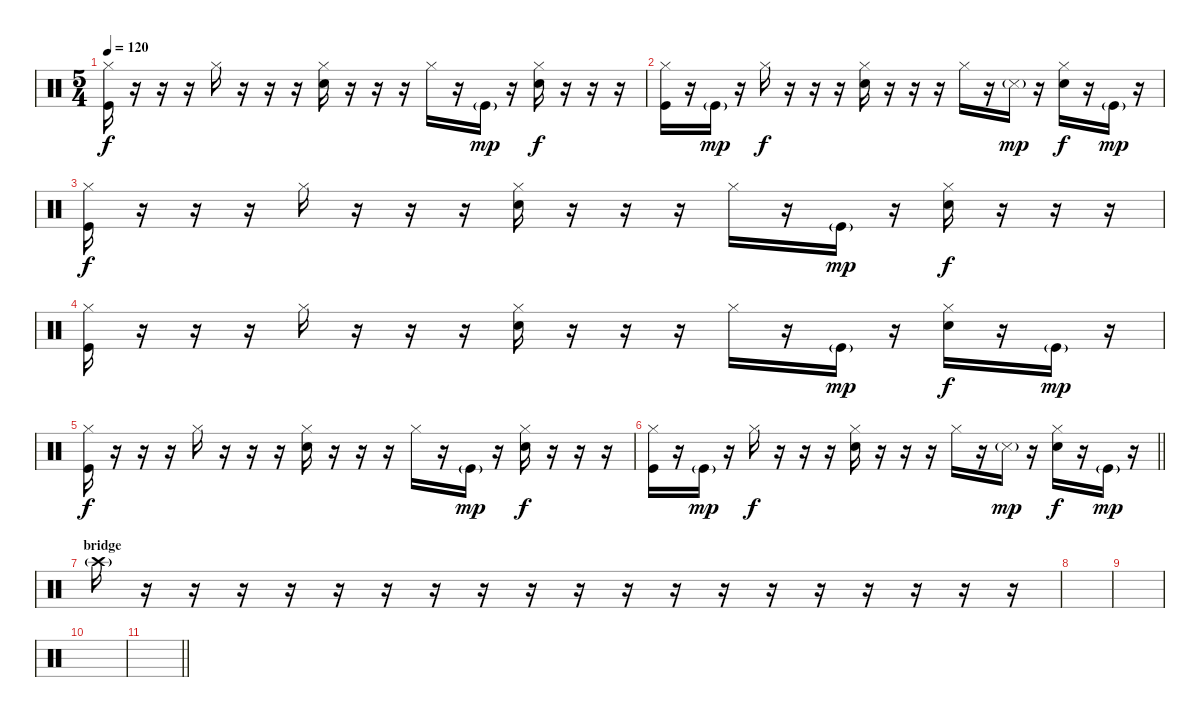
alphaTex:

\track "" {instrument percussion}
\staff {score}
\articulation defaults
\ts (5 4)
\tempo 120
\clef neutral
\ks c
("Kick (hit)" "Hi-Hat (closed)").16{dy f} r.16 r.16 r.16 "Hi-Hat (closed)".16 r.16 r.16 r.16 ("Snare (hit) 2" "Hi-Hat (closed)").16 r.16 r.16 r.16 "Hi-Hat (closed)".16 r.16 "Kick (hit)"{g}.16{dy mp} r.16 ("Snare (hit) 2" "Hi-Hat (closed)").16{dy f} r.16 r.16 r.16 |
("Kick (hit)" "Hi-Hat (closed)").16 r.16 "Kick (hit)"{g}.16{dy mp} r.16 "Hi-Hat (closed)".16{dy f} r.16 r.16 r.16 ("Snare (hit) 2" "Hi-Hat (closed)").16 r.16 r.16 r.16 "Hi-Hat (closed)".16 r.16 "Snare (side stick) 3"{g}.16{dy mp} r.16 ("Snare (hit) 2" "Hi-Hat (closed)").16{dy f} r.16 "Kick (hit)"{g}.16{dy mp} r.16 |
("Kick (hit)" "Hi-Hat (closed)").16{dy f} r.16 r.16 r.16 "Hi-Hat (closed)".16 r.16 r.16 r.16 ("Snare (hit) 2" "Hi-Hat (closed)").16 r.16 r.16 r.16 "Hi-Hat (closed)".16 r.16 "Kick (hit)"{g}.16{dy mp} r.16 ("Snare (hit) 2" "Hi-Hat (closed)").16{dy f} r.16 r.16 r.16 |
("Kick (hit)" "Hi-Hat (closed)").16 r.16 r.16 r.16 "Hi-Hat (closed)".16 r.16 r.16 r.16 ("Snare (hit) 2" "Hi-Hat (closed)").16 r.16 r.16 r.16 "Hi-Hat (closed)".16 r.16 "Kick (hit)"{g}.16{dy mp} r.16 ("Snare (hit) 2" "Hi-Hat (closed)").16{dy f} r.16 "Kick (hit)"{g}.16{dy mp} r.16 |
("Kick (hit)" "Hi-Hat (closed)").16{dy f} r.16 r.16 r.16 "Hi-Hat (closed)".16 r.16 r.16 r.16 ("Snare (hit) 2" "Hi-Hat (closed)").16 r.16 r.16 r.16 "Hi-Hat (closed)".16 r.16 "Kick (hit)"{g}.16{dy mp} r.16 ("Snare (hit) 2" "Hi-Hat (closed)").16{dy f} r.16 r.16 r.16 |
\barLineRight lightlight
("Kick (hit)" "Hi-Hat (closed)").16 r.16 "Kick (hit)"{g}.16{dy mp} r.16 "Hi-Hat (closed)".16{dy f} r.16 r.16 r.16 ("Snare (hit) 2" "Hi-Hat (closed)").16 r.16 r.16 r.16 "Hi-Hat (closed)".16 r.16 "Snare (side stick) 3"{g}.16{dy mp} r.16 ("Snare (hit) 2" "Hi-Hat (closed)").16{dy f} r.16 "Kick (hit)"{g}.16{dy mp} r.16 |
\section ("" "bridge")
"Crash high (hit)"{g}.16 r.16 r.16 r.16 r.16 r.16 r.16 r.16 r.16 r.16 r.16 r.16 r.16 r.16 r.16 r.16 r.16 r.16 r.16 r.16 |
|
|
|
\barLineRight lightlight
